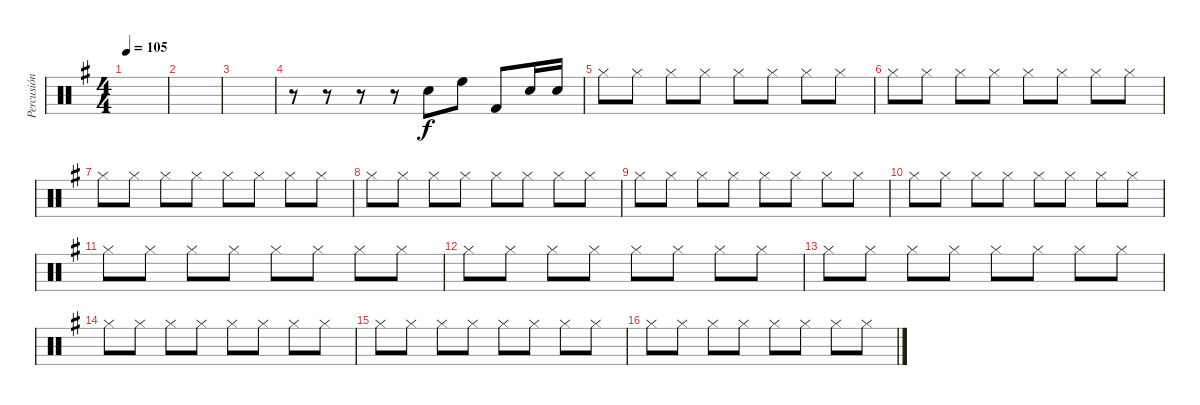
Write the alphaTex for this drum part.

\track ("Percusión" "Percusión") {instrument percussion}
\staff {score}
\articulation defaults
\ts (4 4)
\tempo 105
\clef neutral
\ks g
|
|
|
r.8 r.8 r.8 r.8 "Electric Snare (hit)".8 "High Floor Tom (hit)".8 "Kick (hit) 2".8 "Electric Snare (hit)".16 "Electric Snare (hit)".16 |
"Hi-Hat (closed)".8 "Hi-Hat (closed)".8 "Hi-Hat (closed)".8 "Hi-Hat (closed)".8 "Hi-Hat (closed)".8 "Hi-Hat (closed)".8 "Hi-Hat (closed)".8 "Hi-Hat (closed)".8 |
"Hi-Hat (closed)".8 "Hi-Hat (closed)".8 "Hi-Hat (closed)".8 "Hi-Hat (closed)".8 "Hi-Hat (closed)".8 "Hi-Hat (closed)".8 "Hi-Hat (closed)".8 "Hi-Hat (closed)".8 |
"Hi-Hat (closed)".8 "Hi-Hat (closed)".8 "Hi-Hat (closed)".8 "Hi-Hat (closed)".8 "Hi-Hat (closed)".8 "Hi-Hat (closed)".8 "Hi-Hat (closed)".8 "Hi-Hat (closed)".8 |
"Hi-Hat (closed)".8 "Hi-Hat (closed)".8 "Hi-Hat (closed)".8 "Hi-Hat (closed)".8 "Hi-Hat (closed)".8 "Hi-Hat (closed)".8 "Hi-Hat (closed)".8 "Hi-Hat (closed)".8 |
"Hi-Hat (closed)".8 "Hi-Hat (closed)".8 "Hi-Hat (closed)".8 "Hi-Hat (closed)".8 "Hi-Hat (closed)".8 "Hi-Hat (closed)".8 "Hi-Hat (closed)".8 "Hi-Hat (closed)".8 |
"Hi-Hat (closed)".8 "Hi-Hat (closed)".8 "Hi-Hat (closed)".8 "Hi-Hat (closed)".8 "Hi-Hat (closed)".8 "Hi-Hat (closed)".8 "Hi-Hat (closed)".8 "Hi-Hat (closed)".8 |
"Hi-Hat (closed)".8 "Hi-Hat (closed)".8 "Hi-Hat (closed)".8 "Hi-Hat (closed)".8 "Hi-Hat (closed)".8 "Hi-Hat (closed)".8 "Hi-Hat (closed)".8 "Hi-Hat (closed)".8 |
"Hi-Hat (closed)".8 "Hi-Hat (closed)".8 "Hi-Hat (closed)".8 "Hi-Hat (closed)".8 "Hi-Hat (closed)".8 "Hi-Hat (closed)".8 "Hi-Hat (closed)".8 "Hi-Hat (closed)".8 |
"Hi-Hat (closed)".8 "Hi-Hat (closed)".8 "Hi-Hat (closed)".8 "Hi-Hat (closed)".8 "Hi-Hat (closed)".8 "Hi-Hat (closed)".8 "Hi-Hat (closed)".8 "Hi-Hat (closed)".8 |
"Hi-Hat (closed)".8 "Hi-Hat (closed)".8 "Hi-Hat (closed)".8 "Hi-Hat (closed)".8 "Hi-Hat (closed)".8 "Hi-Hat (closed)".8 "Hi-Hat (closed)".8 "Hi-Hat (closed)".8 |
"Hi-Hat (closed)".8 "Hi-Hat (closed)".8 "Hi-Hat (closed)".8 "Hi-Hat (closed)".8 "Hi-Hat (closed)".8 "Hi-Hat (closed)".8 "Hi-Hat (closed)".8 "Hi-Hat (closed)".8 |
"Hi-Hat (closed)".8 "Hi-Hat (closed)".8 "Hi-Hat (closed)".8 "Hi-Hat (closed)".8 "Hi-Hat (closed)".8 "Hi-Hat (closed)".8 "Hi-Hat (closed)".8 "Hi-Hat (closed)".8
